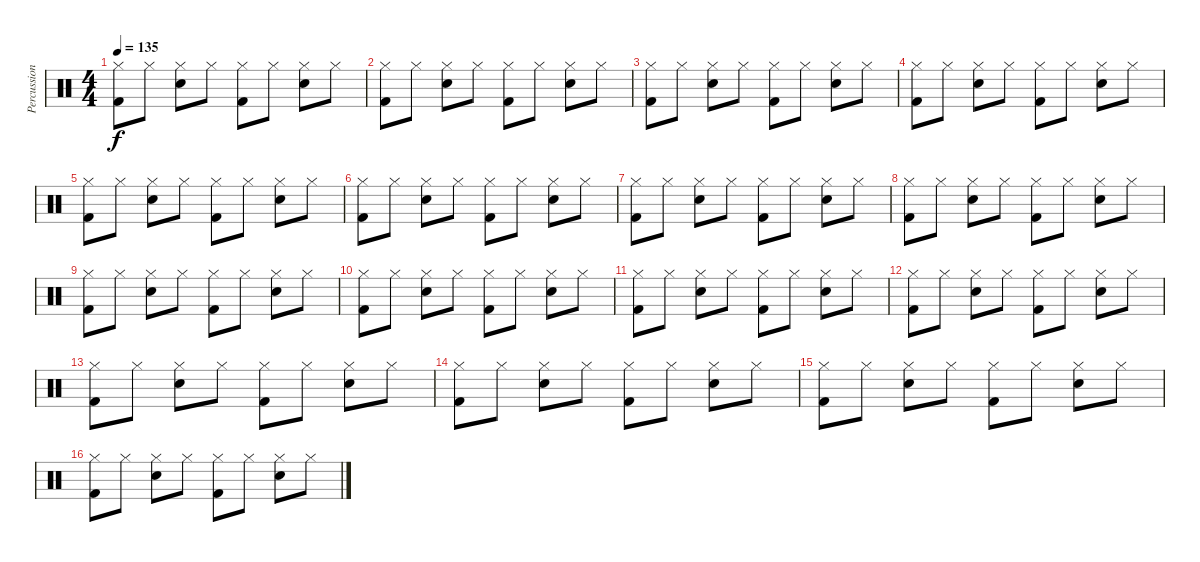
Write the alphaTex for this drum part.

\track ("Percussion" "Percussion") {instrument percussion}
\staff {score}
\articulation defaults
\ts (4 4)
\tempo 135
\clef neutral
\ks c
("Hi-Hat (closed)" "Kick (hit) 2").8{dy f} "Hi-Hat (closed)".8 ("Hi-Hat (closed)" "Snare (hit) 2").8 "Hi-Hat (closed)".8 ("Hi-Hat (closed)" "Kick (hit) 2").8 "Hi-Hat (closed)".8 ("Hi-Hat (closed)" "Snare (hit) 2").8 "Hi-Hat (closed)".8 |
("Hi-Hat (closed)" "Kick (hit) 2").8 "Hi-Hat (closed)".8 ("Hi-Hat (closed)" "Snare (hit) 2").8 "Hi-Hat (closed)".8 ("Hi-Hat (closed)" "Kick (hit) 2").8 "Hi-Hat (closed)".8 ("Hi-Hat (closed)" "Snare (hit) 2").8 "Hi-Hat (closed)".8 |
("Hi-Hat (closed)" "Kick (hit) 2").8 "Hi-Hat (closed)".8 ("Hi-Hat (closed)" "Snare (hit) 2").8 "Hi-Hat (closed)".8 ("Hi-Hat (closed)" "Kick (hit) 2").8 "Hi-Hat (closed)".8 ("Hi-Hat (closed)" "Snare (hit) 2").8 "Hi-Hat (closed)".8 |
("Hi-Hat (closed)" "Kick (hit) 2").8 "Hi-Hat (closed)".8 ("Hi-Hat (closed)" "Snare (hit) 2").8 "Hi-Hat (closed)".8 ("Hi-Hat (closed)" "Kick (hit) 2").8 "Hi-Hat (closed)".8 ("Hi-Hat (closed)" "Snare (hit) 2").8 "Hi-Hat (closed)".8 |
("Hi-Hat (closed)" "Kick (hit) 2").8 "Hi-Hat (closed)".8 ("Hi-Hat (closed)" "Snare (hit) 2").8 "Hi-Hat (closed)".8 ("Hi-Hat (closed)" "Kick (hit) 2").8 "Hi-Hat (closed)".8 ("Hi-Hat (closed)" "Snare (hit) 2").8 "Hi-Hat (closed)".8 |
("Hi-Hat (closed)" "Kick (hit) 2").8 "Hi-Hat (closed)".8 ("Hi-Hat (closed)" "Snare (hit) 2").8 "Hi-Hat (closed)".8 ("Hi-Hat (closed)" "Kick (hit) 2").8 "Hi-Hat (closed)".8 ("Hi-Hat (closed)" "Snare (hit) 2").8 "Hi-Hat (closed)".8 |
("Hi-Hat (closed)" "Kick (hit) 2").8 "Hi-Hat (closed)".8 ("Hi-Hat (closed)" "Snare (hit) 2").8 "Hi-Hat (closed)".8 ("Hi-Hat (closed)" "Kick (hit) 2").8 "Hi-Hat (closed)".8 ("Hi-Hat (closed)" "Snare (hit) 2").8 "Hi-Hat (closed)".8 |
("Hi-Hat (closed)" "Kick (hit) 2").8 "Hi-Hat (closed)".8 ("Hi-Hat (closed)" "Snare (hit) 2").8 "Hi-Hat (closed)".8 ("Hi-Hat (closed)" "Kick (hit) 2").8 "Hi-Hat (closed)".8 ("Hi-Hat (closed)" "Snare (hit) 2").8 "Hi-Hat (closed)".8 |
("Hi-Hat (closed)" "Kick (hit) 2").8 "Hi-Hat (closed)".8 ("Hi-Hat (closed)" "Snare (hit) 2").8 "Hi-Hat (closed)".8 ("Hi-Hat (closed)" "Kick (hit) 2").8 "Hi-Hat (closed)".8 ("Hi-Hat (closed)" "Snare (hit) 2").8 "Hi-Hat (closed)".8 |
("Hi-Hat (closed)" "Kick (hit) 2").8 "Hi-Hat (closed)".8 ("Hi-Hat (closed)" "Snare (hit) 2").8 "Hi-Hat (closed)".8 ("Hi-Hat (closed)" "Kick (hit) 2").8 "Hi-Hat (closed)".8 ("Hi-Hat (closed)" "Snare (hit) 2").8 "Hi-Hat (closed)".8 |
("Hi-Hat (closed)" "Kick (hit) 2").8 "Hi-Hat (closed)".8 ("Hi-Hat (closed)" "Snare (hit) 2").8 "Hi-Hat (closed)".8 ("Hi-Hat (closed)" "Kick (hit) 2").8 "Hi-Hat (closed)".8 ("Hi-Hat (closed)" "Snare (hit) 2").8 "Hi-Hat (closed)".8 |
("Hi-Hat (closed)" "Kick (hit) 2").8 "Hi-Hat (closed)".8 ("Hi-Hat (closed)" "Snare (hit) 2").8 "Hi-Hat (closed)".8 ("Hi-Hat (closed)" "Kick (hit) 2").8 "Hi-Hat (closed)".8 ("Hi-Hat (closed)" "Snare (hit) 2").8 "Hi-Hat (closed)".8 |
("Hi-Hat (closed)" "Kick (hit) 2").8 "Hi-Hat (closed)".8 ("Hi-Hat (closed)" "Snare (hit) 2").8 "Hi-Hat (closed)".8 ("Hi-Hat (closed)" "Kick (hit) 2").8 "Hi-Hat (closed)".8 ("Hi-Hat (closed)" "Snare (hit) 2").8 "Hi-Hat (closed)".8 |
("Hi-Hat (closed)" "Kick (hit) 2").8 "Hi-Hat (closed)".8 ("Hi-Hat (closed)" "Snare (hit) 2").8 "Hi-Hat (closed)".8 ("Hi-Hat (closed)" "Kick (hit) 2").8 "Hi-Hat (closed)".8 ("Hi-Hat (closed)" "Snare (hit) 2").8 "Hi-Hat (closed)".8 |
("Hi-Hat (closed)" "Kick (hit) 2").8 "Hi-Hat (closed)".8 ("Hi-Hat (closed)" "Snare (hit) 2").8 "Hi-Hat (closed)".8 ("Hi-Hat (closed)" "Kick (hit) 2").8 "Hi-Hat (closed)".8 ("Hi-Hat (closed)" "Snare (hit) 2").8 "Hi-Hat (closed)".8 |
("Hi-Hat (closed)" "Kick (hit) 2").8 "Hi-Hat (closed)".8 ("Hi-Hat (closed)" "Snare (hit) 2").8 "Hi-Hat (closed)".8 ("Hi-Hat (closed)" "Kick (hit) 2").8 "Hi-Hat (closed)".8 ("Hi-Hat (closed)" "Snare (hit) 2").8 "Hi-Hat (closed)".8
